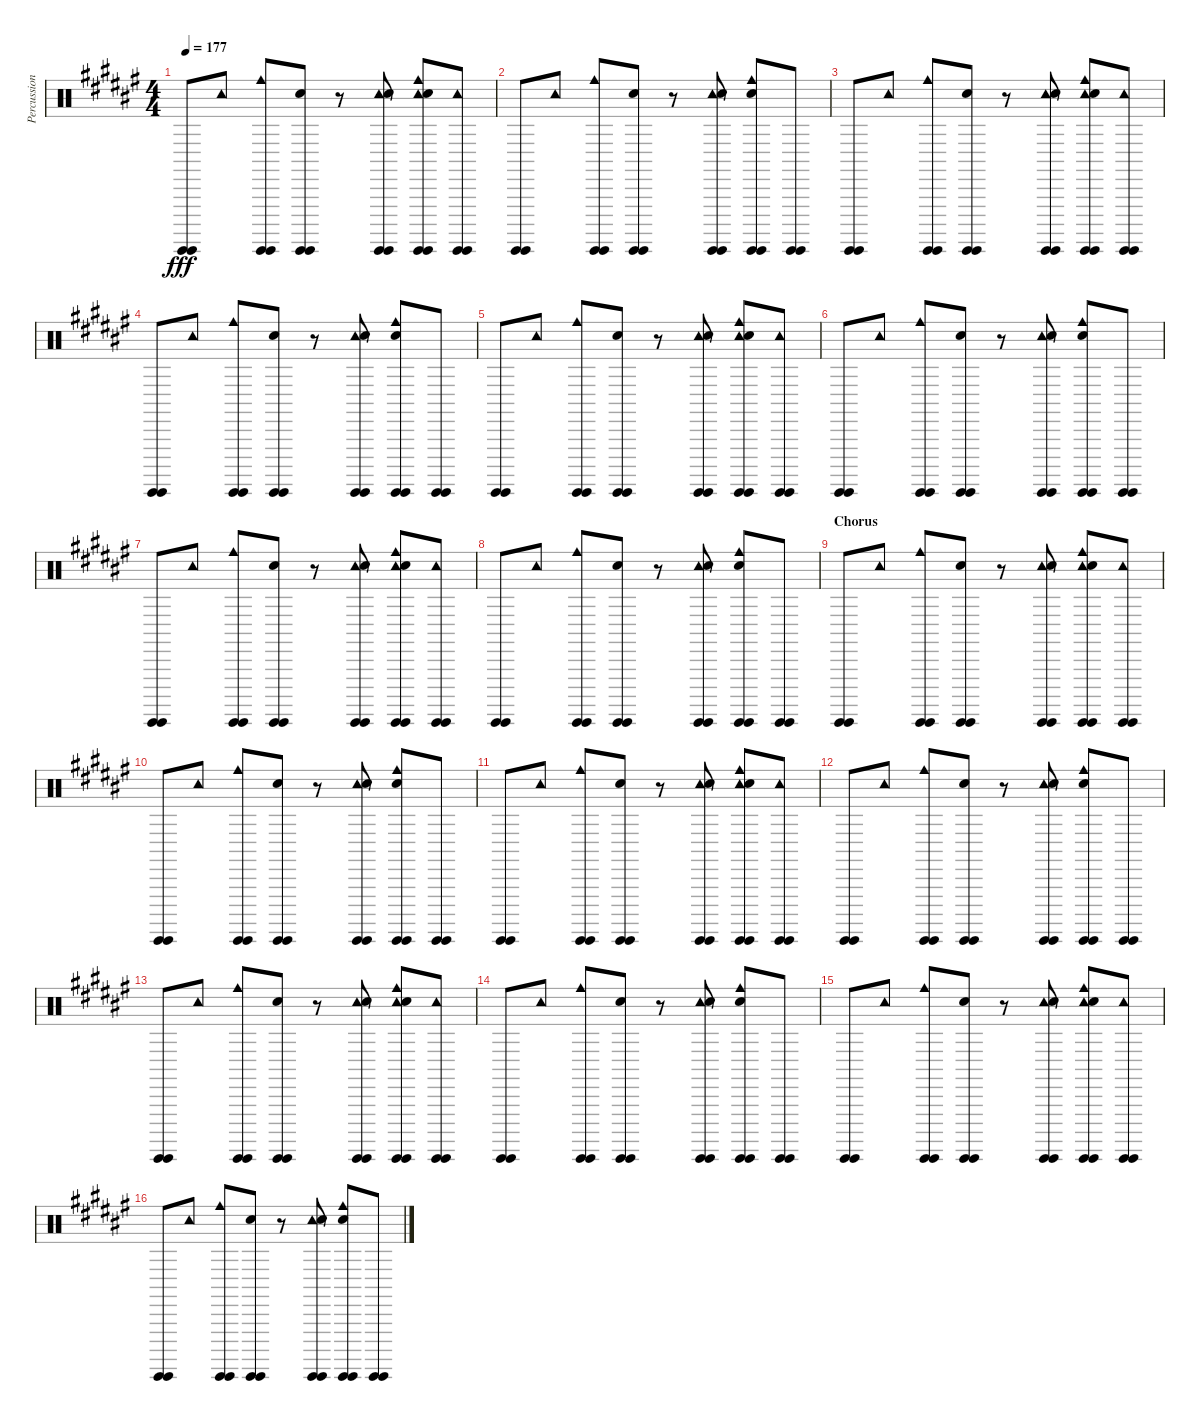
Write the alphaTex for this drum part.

\track ("Percussion" "Percussion") {instrument percussion}
\staff {score}
\articulation defaults
\ts (4 4)
\tempo 177
\clef neutral
\ks d#minor
("Guiro (hit)" "Guiro (hit)").8{dy fff} "Tambourine (hit)".8 ("Cowbell medium (hit)" "Guiro (hit)" "Guiro (hit)").8 ("Guiro (hit)" "Guiro (hit)" "Hand Clap (hit)").8 r.8 ("Tambourine (hit)" "Guiro (hit)" "Guiro (hit)" "Hand Clap (hit)").8 ("Cowbell medium (hit)" "Tambourine (hit)" "Guiro (hit)" "Guiro (hit)" "Hand Clap (hit)").8 ("Tambourine (hit)" "Guiro (hit)" "Guiro (hit)").8 |
("Guiro (hit)" "Guiro (hit)").8 "Tambourine (hit)".8 ("Cowbell medium (hit)" "Guiro (hit)" "Guiro (hit)").8 ("Guiro (hit)" "Guiro (hit)" "Hand Clap (hit)").8 r.8 ("Tambourine (hit)" "Guiro (hit)" "Guiro (hit)" "Hand Clap (hit)").8 ("Cowbell medium (hit)" "Guiro (hit)" "Guiro (hit)" "Hand Clap (hit)").8 ("Guiro (hit)" "Guiro (hit)").8 |
("Guiro (hit)" "Guiro (hit)").8 "Tambourine (hit)".8 ("Cowbell medium (hit)" "Guiro (hit)" "Guiro (hit)").8 ("Guiro (hit)" "Guiro (hit)" "Hand Clap (hit)").8 r.8 ("Tambourine (hit)" "Guiro (hit)" "Guiro (hit)" "Hand Clap (hit)").8 ("Cowbell medium (hit)" "Tambourine (hit)" "Guiro (hit)" "Guiro (hit)" "Hand Clap (hit)").8 ("Tambourine (hit)" "Guiro (hit)" "Guiro (hit)").8 |
("Guiro (hit)" "Guiro (hit)").8 "Tambourine (hit)".8 ("Cowbell medium (hit)" "Guiro (hit)" "Guiro (hit)").8 ("Guiro (hit)" "Guiro (hit)" "Hand Clap (hit)").8 r.8 ("Tambourine (hit)" "Guiro (hit)" "Guiro (hit)" "Hand Clap (hit)").8 ("Cowbell medium (hit)" "Guiro (hit)" "Guiro (hit)" "Hand Clap (hit)").8 ("Guiro (hit)" "Guiro (hit)").8 |
("Guiro (hit)" "Guiro (hit)").8 "Tambourine (hit)".8 ("Cowbell medium (hit)" "Guiro (hit)" "Guiro (hit)").8 ("Guiro (hit)" "Guiro (hit)" "Hand Clap (hit)").8 r.8 ("Tambourine (hit)" "Guiro (hit)" "Guiro (hit)" "Hand Clap (hit)").8 ("Cowbell medium (hit)" "Tambourine (hit)" "Guiro (hit)" "Guiro (hit)" "Hand Clap (hit)").8 ("Tambourine (hit)" "Guiro (hit)" "Guiro (hit)").8 |
("Guiro (hit)" "Guiro (hit)").8 "Tambourine (hit)".8 ("Cowbell medium (hit)" "Guiro (hit)" "Guiro (hit)").8 ("Guiro (hit)" "Guiro (hit)" "Hand Clap (hit)").8 r.8 ("Tambourine (hit)" "Guiro (hit)" "Guiro (hit)" "Hand Clap (hit)").8 ("Cowbell medium (hit)" "Guiro (hit)" "Guiro (hit)" "Hand Clap (hit)").8 ("Guiro (hit)" "Guiro (hit)").8 |
("Guiro (hit)" "Guiro (hit)").8 "Tambourine (hit)".8 ("Cowbell medium (hit)" "Guiro (hit)" "Guiro (hit)").8 ("Guiro (hit)" "Guiro (hit)" "Hand Clap (hit)").8 r.8 ("Tambourine (hit)" "Guiro (hit)" "Guiro (hit)" "Hand Clap (hit)").8 ("Cowbell medium (hit)" "Tambourine (hit)" "Guiro (hit)" "Guiro (hit)" "Hand Clap (hit)").8 ("Tambourine (hit)" "Guiro (hit)" "Guiro (hit)").8 |
("Guiro (hit)" "Guiro (hit)").8 "Tambourine (hit)".8 ("Cowbell medium (hit)" "Guiro (hit)" "Guiro (hit)").8 ("Guiro (hit)" "Guiro (hit)" "Hand Clap (hit)").8 r.8 ("Tambourine (hit)" "Guiro (hit)" "Guiro (hit)" "Hand Clap (hit)").8 ("Cowbell medium (hit)" "Guiro (hit)" "Guiro (hit)" "Hand Clap (hit)").8 ("Guiro (hit)" "Guiro (hit)").8 |
\section ("" "Chorus")
("Guiro (hit)" "Guiro (hit)").8 "Tambourine (hit)".8 ("Cowbell medium (hit)" "Guiro (hit)" "Guiro (hit)").8 ("Guiro (hit)" "Guiro (hit)" "Hand Clap (hit)").8 r.8 ("Tambourine (hit)" "Guiro (hit)" "Guiro (hit)" "Hand Clap (hit)").8 ("Cowbell medium (hit)" "Tambourine (hit)" "Guiro (hit)" "Guiro (hit)" "Hand Clap (hit)").8 ("Tambourine (hit)" "Guiro (hit)" "Guiro (hit)").8 |
("Guiro (hit)" "Guiro (hit)").8 "Tambourine (hit)".8 ("Cowbell medium (hit)" "Guiro (hit)" "Guiro (hit)").8 ("Guiro (hit)" "Guiro (hit)" "Hand Clap (hit)").8 r.8 ("Tambourine (hit)" "Guiro (hit)" "Guiro (hit)" "Hand Clap (hit)").8 ("Cowbell medium (hit)" "Guiro (hit)" "Guiro (hit)" "Hand Clap (hit)").8 ("Guiro (hit)" "Guiro (hit)").8 |
("Guiro (hit)" "Guiro (hit)").8 "Tambourine (hit)".8 ("Cowbell medium (hit)" "Guiro (hit)" "Guiro (hit)").8 ("Guiro (hit)" "Guiro (hit)" "Hand Clap (hit)").8 r.8 ("Tambourine (hit)" "Guiro (hit)" "Guiro (hit)" "Hand Clap (hit)").8 ("Cowbell medium (hit)" "Tambourine (hit)" "Guiro (hit)" "Guiro (hit)" "Hand Clap (hit)").8 ("Tambourine (hit)" "Guiro (hit)" "Guiro (hit)").8 |
("Guiro (hit)" "Guiro (hit)").8 "Tambourine (hit)".8 ("Cowbell medium (hit)" "Guiro (hit)" "Guiro (hit)").8 ("Guiro (hit)" "Guiro (hit)" "Hand Clap (hit)").8 r.8 ("Tambourine (hit)" "Guiro (hit)" "Guiro (hit)" "Hand Clap (hit)").8 ("Cowbell medium (hit)" "Guiro (hit)" "Guiro (hit)" "Hand Clap (hit)").8 ("Guiro (hit)" "Guiro (hit)").8 |
("Guiro (hit)" "Guiro (hit)").8 "Tambourine (hit)".8 ("Cowbell medium (hit)" "Guiro (hit)" "Guiro (hit)").8 ("Guiro (hit)" "Guiro (hit)" "Hand Clap (hit)").8 r.8 ("Tambourine (hit)" "Guiro (hit)" "Guiro (hit)" "Hand Clap (hit)").8 ("Cowbell medium (hit)" "Tambourine (hit)" "Guiro (hit)" "Guiro (hit)" "Hand Clap (hit)").8 ("Tambourine (hit)" "Guiro (hit)" "Guiro (hit)").8 |
("Guiro (hit)" "Guiro (hit)").8 "Tambourine (hit)".8 ("Cowbell medium (hit)" "Guiro (hit)" "Guiro (hit)").8 ("Guiro (hit)" "Guiro (hit)" "Hand Clap (hit)").8 r.8 ("Tambourine (hit)" "Guiro (hit)" "Guiro (hit)" "Hand Clap (hit)").8 ("Cowbell medium (hit)" "Guiro (hit)" "Guiro (hit)" "Hand Clap (hit)").8 ("Guiro (hit)" "Guiro (hit)").8 |
("Guiro (hit)" "Guiro (hit)").8 "Tambourine (hit)".8 ("Cowbell medium (hit)" "Guiro (hit)" "Guiro (hit)").8 ("Guiro (hit)" "Guiro (hit)" "Hand Clap (hit)").8 r.8 ("Tambourine (hit)" "Guiro (hit)" "Guiro (hit)" "Hand Clap (hit)").8 ("Cowbell medium (hit)" "Tambourine (hit)" "Guiro (hit)" "Guiro (hit)" "Hand Clap (hit)").8 ("Tambourine (hit)" "Guiro (hit)" "Guiro (hit)").8 |
("Guiro (hit)" "Guiro (hit)").8 "Tambourine (hit)".8 ("Cowbell medium (hit)" "Guiro (hit)" "Guiro (hit)").8 ("Guiro (hit)" "Guiro (hit)" "Hand Clap (hit)").8 r.8 ("Tambourine (hit)" "Guiro (hit)" "Guiro (hit)" "Hand Clap (hit)").8 ("Cowbell medium (hit)" "Guiro (hit)" "Guiro (hit)" "Hand Clap (hit)").8 ("Guiro (hit)" "Guiro (hit)").8
